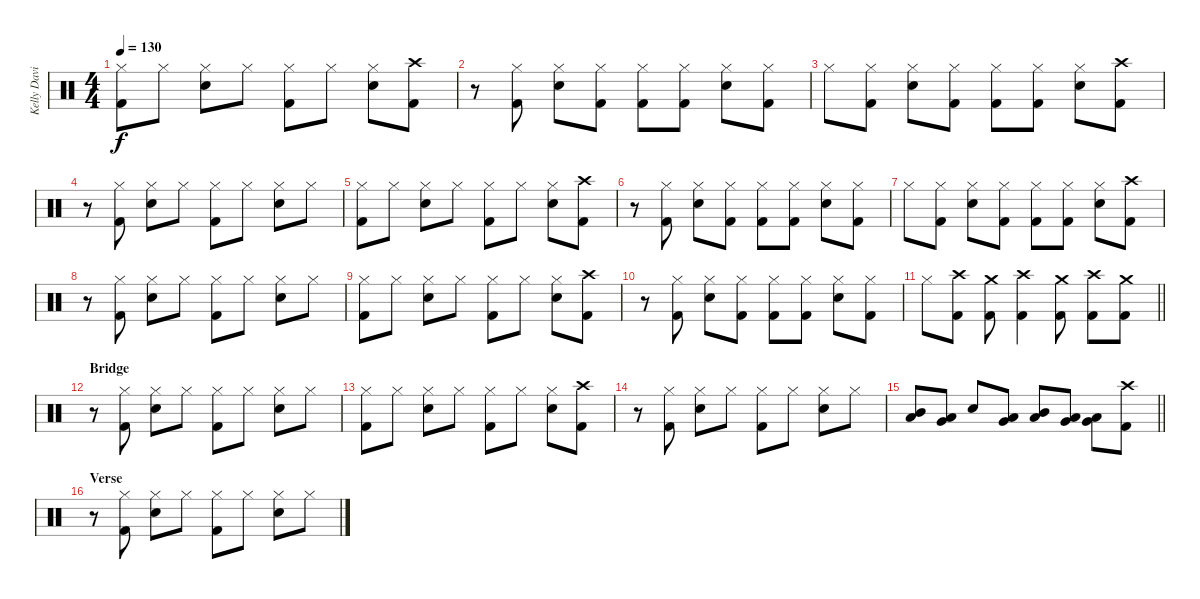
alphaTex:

\track ("Kelly David Smith" "Kelly Davi") {instrument percussion}
\staff {score}
\articulation defaults
\ts (4 4)
\tempo 130
\clef neutral
\ks c
("Hi-Hat (closed)" "Kick (hit) 2").8{dy f} "Hi-Hat (closed)".8 ("Hi-Hat (closed)" "Snare (hit) 2").8 "Hi-Hat (closed)".8 ("Hi-Hat (closed)" "Kick (hit) 2").8 "Hi-Hat (closed)".8 ("Hi-Hat (closed)" "Snare (hit) 2").8 ("Crash high (hit)" "Kick (hit) 2").8 |
r.8 ("Hi-Hat (closed)" "Kick (hit) 2").8 ("Hi-Hat (closed)" "Snare (hit) 2").8 ("Hi-Hat (closed)" "Kick (hit) 2").8 ("Hi-Hat (closed)" "Kick (hit) 2").8 ("Hi-Hat (closed)" "Kick (hit) 2").8 ("Hi-Hat (closed)" "Snare (hit) 2").8 ("Hi-Hat (closed)" "Kick (hit) 2").8 |
"Hi-Hat (closed)".8 ("Hi-Hat (closed)" "Kick (hit) 2").8 ("Hi-Hat (closed)" "Snare (hit) 2").8 ("Hi-Hat (closed)" "Kick (hit) 2").8 ("Hi-Hat (closed)" "Kick (hit) 2").8 ("Hi-Hat (closed)" "Kick (hit) 2").8 ("Hi-Hat (closed)" "Snare (hit) 2").8 ("Crash high (hit)" "Kick (hit) 2").8 |
r.8 ("Hi-Hat (closed)" "Kick (hit) 2").8 ("Hi-Hat (closed)" "Snare (hit) 2").8 "Hi-Hat (closed)".8 ("Hi-Hat (closed)" "Kick (hit) 2").8 "Hi-Hat (closed)".8 ("Hi-Hat (closed)" "Snare (hit) 2").8 "Hi-Hat (closed)".8 |
("Hi-Hat (closed)" "Kick (hit) 2").8 "Hi-Hat (closed)".8 ("Hi-Hat (closed)" "Snare (hit) 2").8 "Hi-Hat (closed)".8 ("Hi-Hat (closed)" "Kick (hit) 2").8 "Hi-Hat (closed)".8 ("Hi-Hat (closed)" "Snare (hit) 2").8 ("Crash high (hit)" "Kick (hit) 2").8 |
r.8 ("Hi-Hat (closed)" "Kick (hit) 2").8 ("Hi-Hat (closed)" "Snare (hit) 2").8 ("Hi-Hat (closed)" "Kick (hit) 2").8 ("Hi-Hat (closed)" "Kick (hit) 2").8 ("Hi-Hat (closed)" "Kick (hit) 2").8 ("Hi-Hat (closed)" "Snare (hit) 2").8 ("Hi-Hat (closed)" "Kick (hit) 2").8 |
"Hi-Hat (closed)".8 ("Hi-Hat (closed)" "Kick (hit) 2").8 ("Hi-Hat (closed)" "Snare (hit) 2").8 ("Hi-Hat (closed)" "Kick (hit) 2").8 ("Hi-Hat (closed)" "Kick (hit) 2").8 ("Hi-Hat (closed)" "Kick (hit) 2").8 ("Hi-Hat (closed)" "Snare (hit) 2").8 ("Crash high (hit)" "Kick (hit) 2").8 |
r.8 ("Hi-Hat (closed)" "Kick (hit) 2").8 ("Hi-Hat (closed)" "Snare (hit) 2").8 "Hi-Hat (closed)".8 ("Hi-Hat (closed)" "Kick (hit) 2").8 "Hi-Hat (closed)".8 ("Hi-Hat (closed)" "Snare (hit) 2").8 "Hi-Hat (closed)".8 |
("Hi-Hat (closed)" "Kick (hit) 2").8 "Hi-Hat (closed)".8 ("Hi-Hat (closed)" "Snare (hit) 2").8 "Hi-Hat (closed)".8 ("Hi-Hat (closed)" "Kick (hit) 2").8 "Hi-Hat (closed)".8 ("Hi-Hat (closed)" "Snare (hit) 2").8 ("Crash high (hit)" "Kick (hit) 2").8 |
r.8 ("Hi-Hat (closed)" "Kick (hit) 2").8 ("Hi-Hat (closed)" "Snare (hit) 2").8 ("Hi-Hat (closed)" "Kick (hit) 2").8 ("Hi-Hat (closed)" "Kick (hit) 2").8 ("Hi-Hat (closed)" "Kick (hit) 2").8 ("Hi-Hat (closed)" "Snare (hit) 2").8 ("Hi-Hat (closed)" "Kick (hit) 2").8 |
\barLineRight lightlight "Hi-Hat (closed)".8
("Crash high (hit)" "Kick (hit) 2").8 ("Crash medium (hit)" "Kick (hit) 2").8 ("Crash high (hit)" "Kick (hit) 2").4 ("Crash medium (hit)" "Kick (hit) 2").8 ("Crash high (hit)" "Kick (hit) 2").8 ("Crash medium (hit)" "Kick (hit) 2").8 |
\section ("" "Bridge")
r.8 ("Hi-Hat (closed)" "Kick (hit) 2").8 ("Hi-Hat (closed)" "Snare (hit) 2").8 "Hi-Hat (closed)".8 ("Hi-Hat (closed)" "Kick (hit) 2").8 "Hi-Hat (closed)".8 ("Hi-Hat (closed)" "Snare (hit) 2").8 "Hi-Hat (closed)".8 |
("Hi-Hat (closed)" "Kick (hit) 2").8 "Hi-Hat (closed)".8 ("Hi-Hat (closed)" "Snare (hit) 2").8 "Hi-Hat (closed)".8 ("Hi-Hat (closed)" "Kick (hit) 2").8 "Hi-Hat (closed)".8 ("Hi-Hat (closed)" "Snare (hit) 2").8 ("Crash high (hit)" "Kick (hit) 2").8 |
r.8 ("Hi-Hat (closed)" "Kick (hit) 2").8 ("Hi-Hat (closed)" "Snare (hit) 2").8 "Hi-Hat (closed)".8 ("Hi-Hat (closed)" "Kick (hit) 2").8 "Hi-Hat (closed)".8 ("Hi-Hat (closed)" "Snare (hit) 2").8 "Hi-Hat (closed)".8 |
\barLineRight lightlight
("Mid Tom (hit)" "Low Tom (hit)").8 ("Low Tom (hit)" "Very Low Tom (hit)").8 "Snare (hit) 2".8 ("Low Tom (hit)" "Very Low Tom (hit)").8 ("Mid Tom (hit)" "Low Tom (hit)").8 ("Low Tom (hit)" "Very Low Tom (hit)").8 ("Very Low Tom (hit)" "Low Floor Tom (hit)").8 ("Crash high (hit)" "Kick (hit) 2").8 |
\section ("" "Verse")
r.8 ("Hi-Hat (closed)" "Kick (hit) 2").8 ("Hi-Hat (closed)" "Snare (hit) 2").8 "Hi-Hat (closed)".8 ("Hi-Hat (closed)" "Kick (hit) 2").8 "Hi-Hat (closed)".8 ("Hi-Hat (closed)" "Snare (hit) 2").8 "Hi-Hat (closed)".8
